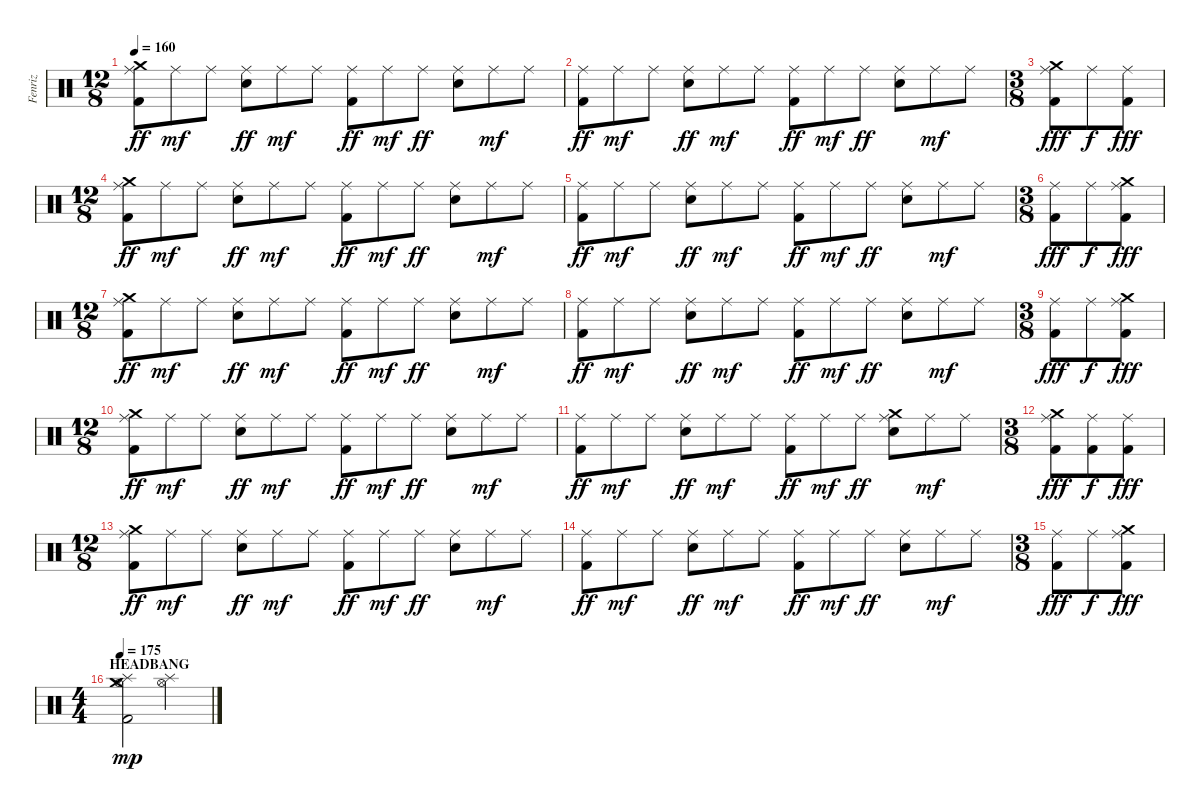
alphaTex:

\track ("Fenriz" "Fenriz") {instrument percussion}
\staff {score}
\articulation defaults
\ts (12 8)
\tempo 160
\clef neutral
\ks c
("Kick (hit) 2" "Ride (middle)" "Crash medium (hit)").8{dy ff} "Ride (middle)".8{dy mf} "Ride (middle)".8 ("Electric Snare (hit)" "Ride (middle)").8{dy ff} "Ride (middle)".8{dy mf} "Ride (middle)".8 ("Kick (hit) 2" "Ride (middle)").8{dy ff} "Ride (middle)".8{dy mf} "Ride (middle)".8{dy ff} ("Electric Snare (hit)" "Ride (middle)").8 "Ride (middle)".8{dy mf} "Ride (middle)".8 |
("Kick (hit) 2" "Ride (middle)").8{dy ff} "Ride (middle)".8{dy mf} "Ride (middle)".8 ("Electric Snare (hit)" "Ride (middle)").8{dy ff} "Ride (middle)".8{dy mf} "Ride (middle)".8 ("Kick (hit) 2" "Ride (middle)").8{dy ff} "Ride (middle)".8{dy mf} "Ride (middle)".8{dy ff} ("Electric Snare (hit)" "Ride (middle)").8 "Ride (middle)".8{dy mf} "Ride (middle)".8 |
\ts (3 8)
("Kick (hit) 2" "Crash medium (hit)" "Ride (middle)").8{dy fff} "Ride (middle)".8{dy f} ("Kick (hit) 2" "Ride (middle)").8{dy fff} |
\ts (12 8)
("Kick (hit) 2" "Ride (middle)" "Crash medium (hit)").8{dy ff} "Ride (middle)".8{dy mf} "Ride (middle)".8 ("Electric Snare (hit)" "Ride (middle)").8{dy ff} "Ride (middle)".8{dy mf} "Ride (middle)".8 ("Kick (hit) 2" "Ride (middle)").8{dy ff} "Ride (middle)".8{dy mf} "Ride (middle)".8{dy ff} ("Electric Snare (hit)" "Ride (middle)").8 "Ride (middle)".8{dy mf} "Ride (middle)".8 |
("Kick (hit) 2" "Ride (middle)").8{dy ff} "Ride (middle)".8{dy mf} "Ride (middle)".8 ("Electric Snare (hit)" "Ride (middle)").8{dy ff} "Ride (middle)".8{dy mf} "Ride (middle)".8 ("Kick (hit) 2" "Ride (middle)").8{dy ff} "Ride (middle)".8{dy mf} "Ride (middle)".8{dy ff} ("Electric Snare (hit)" "Ride (middle)").8 "Ride (middle)".8{dy mf} "Ride (middle)".8 |
\ts (3 8)
("Kick (hit) 2" "Ride (middle)").8{dy fff} "Ride (middle)".8{dy f} ("Kick (hit) 2" "Crash medium (hit)" "Ride (middle)").8{dy fff} |
\ts (12 8)
("Kick (hit) 2" "Ride (middle)" "Crash medium (hit)").8{dy ff} "Ride (middle)".8{dy mf} "Ride (middle)".8 ("Electric Snare (hit)" "Ride (middle)").8{dy ff} "Ride (middle)".8{dy mf} "Ride (middle)".8 ("Kick (hit) 2" "Ride (middle)").8{dy ff} "Ride (middle)".8{dy mf} "Ride (middle)".8{dy ff} ("Electric Snare (hit)" "Ride (middle)").8 "Ride (middle)".8{dy mf} "Ride (middle)".8 |
("Kick (hit) 2" "Ride (middle)").8{dy ff} "Ride (middle)".8{dy mf} "Ride (middle)".8 ("Electric Snare (hit)" "Ride (middle)").8{dy ff} "Ride (middle)".8{dy mf} "Ride (middle)".8 ("Kick (hit) 2" "Ride (middle)").8{dy ff} "Ride (middle)".8{dy mf} "Ride (middle)".8{dy ff} ("Electric Snare (hit)" "Ride (middle)").8 "Ride (middle)".8{dy mf} "Ride (middle)".8 |
\ts (3 8)
("Kick (hit) 2" "Ride (middle)").8{dy fff} "Ride (middle)".8{dy f} ("Kick (hit) 2" "Crash medium (hit)" "Ride (middle)").8{dy fff} |
\ts (12 8)
("Kick (hit) 2" "Ride (middle)" "Crash medium (hit)").8{dy ff} "Ride (middle)".8{dy mf} "Ride (middle)".8 ("Electric Snare (hit)" "Ride (middle)").8{dy ff} "Ride (middle)".8{dy mf} "Ride (middle)".8 ("Kick (hit) 2" "Ride (middle)").8{dy ff} "Ride (middle)".8{dy mf} "Ride (middle)".8{dy ff} ("Electric Snare (hit)" "Ride (middle)").8 "Ride (middle)".8{dy mf} "Ride (middle)".8 |
("Kick (hit) 2" "Ride (middle)").8{dy ff} "Ride (middle)".8{dy mf} "Ride (middle)".8 ("Electric Snare (hit)" "Ride (middle)").8{dy ff} "Ride (middle)".8{dy mf} "Ride (middle)".8 ("Kick (hit) 2" "Ride (middle)").8{dy ff} "Ride (middle)".8{dy mf} "Ride (middle)".8{dy ff} ("Crash medium (hit)" "Electric Snare (hit)" "Ride (middle)").8 "Ride (middle)".8{dy mf} "Ride (middle)".8 |
\ts (3 8)
("Kick (hit) 2" "Crash medium (hit)" "Ride (middle)").8{dy fff} ("Kick (hit) 2" "Ride (middle)").8{dy f} ("Kick (hit) 2" "Ride (middle)").8{dy fff} |
\ts (12 8)
("Kick (hit) 2" "Ride (middle)" "Crash medium (hit)").8{dy ff} "Ride (middle)".8{dy mf} "Ride (middle)".8 ("Electric Snare (hit)" "Ride (middle)").8{dy ff} "Ride (middle)".8{dy mf} "Ride (middle)".8 ("Kick (hit) 2" "Ride (middle)").8{dy ff} "Ride (middle)".8{dy mf} "Ride (middle)".8{dy ff} ("Electric Snare (hit)" "Ride (middle)").8 "Ride (middle)".8{dy mf} "Ride (middle)".8 |
("Kick (hit) 2" "Ride (middle)").8{dy ff} "Ride (middle)".8{dy mf} "Ride (middle)".8 ("Electric Snare (hit)" "Ride (middle)").8{dy ff} "Ride (middle)".8{dy mf} "Ride (middle)".8 ("Kick (hit) 2" "Ride (middle)").8{dy ff} "Ride (middle)".8{dy mf} "Ride (middle)".8{dy ff} ("Electric Snare (hit)" "Ride (middle)").8 "Ride (middle)".8{dy mf} "Ride (middle)".8 |
\ts (3 8)
("Kick (hit) 2" "Ride (middle)").8{dy fff} "Ride (middle)".8{dy f} ("Kick (hit) 2" "Crash medium (hit)" "Ride (middle)").8{dy fff} |
\ts (4 4)
\section ("" "HEADBANG")
\tempo 175
("Kick (hit) 2" "Crash medium (hit)" "Splash (hit)" "Hi-Hat (open)").2{dy mp} ("Splash (hit)" "Hi-Hat (open)").2
